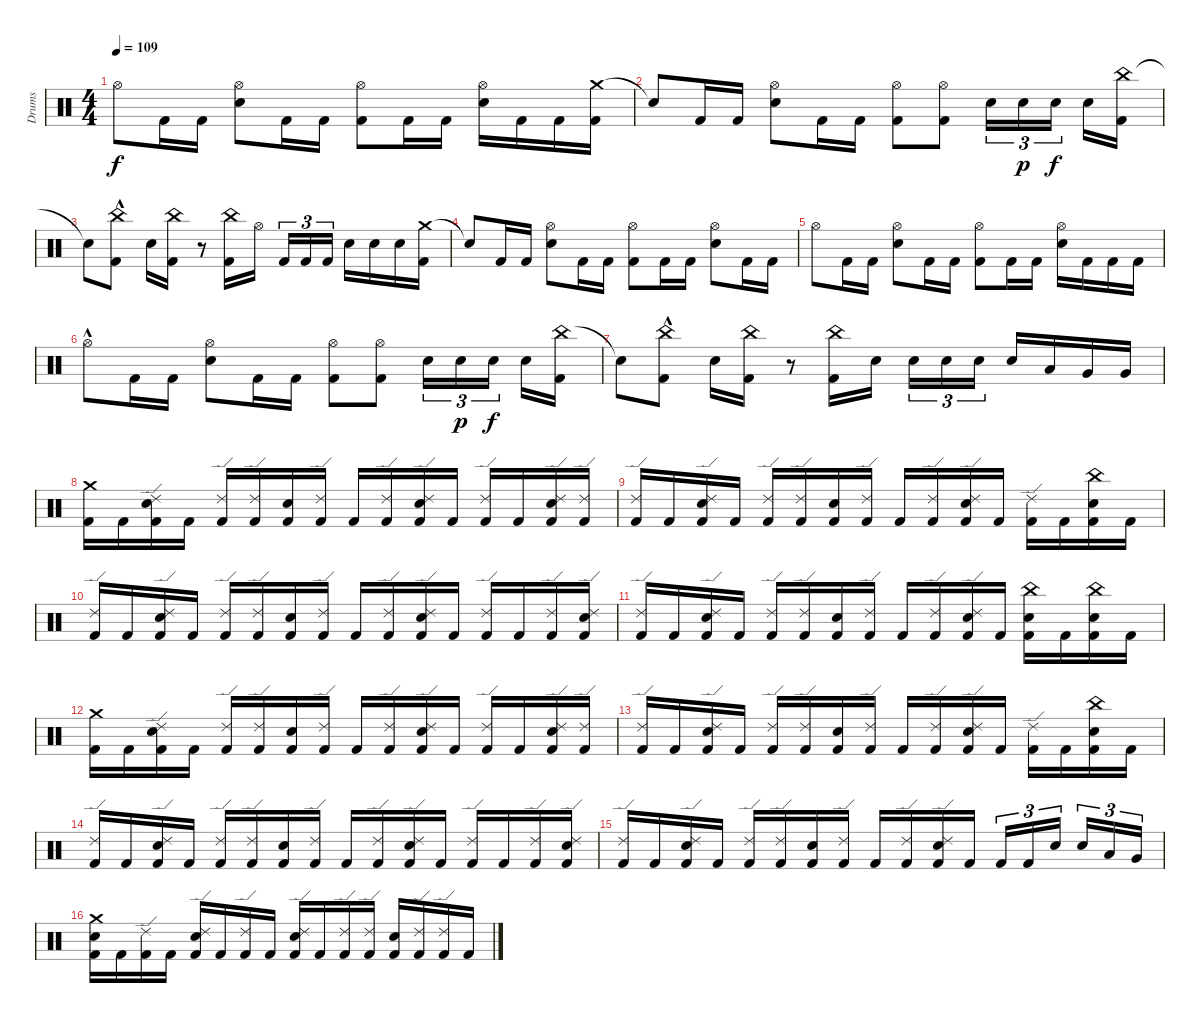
\track ("Drums" "Drums") {instrument percussion}
\staff {score}
\articulation defaults
\ts (4 4)
\tempo 109
\clef neutral
\ks c "Hi-Hat (open)".8{dy f} "Kick (hit) 2".16 "Kick (hit) 2".16
("Electric Snare (hit)" "Hi-Hat (open)").8 "Kick (hit) 2".16 "Kick (hit) 2".16 ("Kick (hit) 2" "Hi-Hat (open)").8 "Kick (hit) 2".16 "Kick (hit) 2".16 ("Electric Snare (hit)" "Hi-Hat (open)").16 "Kick (hit) 2".16 "Kick (hit) 2".16 ("Crash medium (hit)" "Kick (hit) 2").16 |
"Snare (hit)"{t}.8 "Kick (hit) 2".16 "Kick (hit) 2".16 ("Electric Snare (hit)" "Hi-Hat (open)").8 "Kick (hit) 2".16 "Kick (hit) 2".16 ("Kick (hit) 2" "Hi-Hat (open)").8 ("Kick (hit) 2" "Hi-Hat (open)").8 "Electric Snare (hit)".16{tu (3 2)} "Electric Snare (hit)".16{tu (3 2) dy p} "Electric Snare (hit)".16{tu (3 2) dy f} "Electric Snare (hit)".16 ("China (hit)" "Kick (hit) 2").16 |
"Snare (hit)"{t}.8 ("China (hit)"{hac} "Kick (hit) 2"{hac}).8 "Electric Snare (hit)".16 ("China (hit)" "Kick (hit) 2").16 r.8 ("China (hit)" "Kick (hit) 2").16 "Hi-Hat (open)".16 "Kick (hit) 2".16{tu (3 2)} "Kick (hit) 2".16{tu (3 2)} "Kick (hit) 2".16{tu (3 2)} "Electric Snare (hit)".16 "Electric Snare (hit)".16 "Electric Snare (hit)".16 ("Crash medium (hit)" "Kick (hit) 2").16 |
"Snare (hit)"{t}.8 "Kick (hit) 2".16 "Kick (hit) 2".16 ("Electric Snare (hit)" "Hi-Hat (open)").8 "Kick (hit) 2".16 "Kick (hit) 2".16 ("Kick (hit) 2" "Hi-Hat (open)").8 "Kick (hit) 2".16 "Kick (hit) 2".16 ("Electric Snare (hit)" "Hi-Hat (open)").8 "Kick (hit) 2".16 "Kick (hit) 2".16 |
"Hi-Hat (open)".8 "Kick (hit) 2".16 "Kick (hit) 2".16 ("Electric Snare (hit)" "Hi-Hat (open)").8 "Kick (hit) 2".16 "Kick (hit) 2".16 ("Kick (hit) 2" "Hi-Hat (open)").8 "Kick (hit) 2".16 "Kick (hit) 2".16 ("Electric Snare (hit)" "Hi-Hat (open)").16 "Kick (hit) 2".16 "Kick (hit) 2".16 "Kick (hit) 2".16 |
"Hi-Hat (open)"{hac}.8 "Kick (hit) 2".16 "Kick (hit) 2".16 ("Electric Snare (hit)" "Hi-Hat (open)").8 "Kick (hit) 2".16 "Kick (hit) 2".16 ("Kick (hit) 2" "Hi-Hat (open)").8 ("Kick (hit) 2" "Hi-Hat (open)").8 "Electric Snare (hit)".16{tu (3 2)} "Electric Snare (hit)".16{tu (3 2) dy p} "Electric Snare (hit)".16{tu (3 2) dy f} "Electric Snare (hit)".16 ("China (hit)" "Kick (hit) 2").16 |
"Snare (hit)"{t}.8 ("China (hit)"{hac} "Kick (hit) 2"{hac}).8 "Electric Snare (hit)".16 ("China (hit)" "Kick (hit) 2").16 r.8 ("China (hit)" "Kick (hit) 2").16 "Electric Snare (hit)".16 "Electric Snare (hit)".16{tu (3 2)} "Electric Snare (hit)".16{tu (3 2)} "Electric Snare (hit)".16{tu (3 2)} "Electric Snare (hit)".16 "Low Tom (hit)".16 "Very Low Tom (hit)".16 "Very Low Tom (hit)".16 |
("Kick (hit) 2" "Crash medium (hit)").16 "Kick (hit) 2".16 ("Electric Snare (hit)" "Kick (hit) 2" "Ride (edge) 2").16 "Kick (hit) 2".16 ("Kick (hit) 2" "Ride (edge) 2").16 ("Kick (hit) 2" "Ride (edge) 2").16 ("Electric Snare (hit)" "Kick (hit) 2").16 ("Kick (hit) 2" "Ride (edge) 2").16 "Kick (hit) 2".16 ("Kick (hit) 2" "Ride (edge) 2").16 ("Electric Snare (hit)" "Kick (hit) 2" "Ride (edge) 2").16 "Kick (hit) 2".16 ("Kick (hit) 2" "Ride (edge) 2").16 "Kick (hit) 2".16 ("Electric Snare (hit)" "Kick (hit) 2" "Ride (edge) 2").16 ("Kick (hit) 2" "Ride (edge) 2").16 |
("Ride (edge) 2" "Kick (hit) 2").16 "Kick (hit) 2".16 ("Electric Snare (hit)" "Kick (hit) 2" "Ride (edge) 2").16 "Kick (hit) 2".16 ("Kick (hit) 2" "Ride (edge) 2").16 ("Kick (hit) 2" "Ride (edge) 2").16 ("Electric Snare (hit)" "Kick (hit) 2").16 ("Kick (hit) 2" "Ride (edge) 2").16 "Kick (hit) 2".16 ("Kick (hit) 2" "Ride (edge) 2").16 ("Electric Snare (hit)" "Kick (hit) 2" "Ride (edge) 2").16 "Kick (hit) 2".16 ("Kick (hit) 2" "Ride (edge) 2").16 "Kick (hit) 2".16 ("China (hit)" "Electric Snare (hit)" "Kick (hit) 2").16 "Kick (hit) 2".16 |
("Ride (edge) 2" "Kick (hit) 2").16 "Kick (hit) 2".16 ("Electric Snare (hit)" "Kick (hit) 2" "Ride (edge) 2").16 "Kick (hit) 2".16 ("Kick (hit) 2" "Ride (edge) 2").16 ("Kick (hit) 2" "Ride (edge) 2").16 ("Electric Snare (hit)" "Kick (hit) 2").16 ("Kick (hit) 2" "Ride (edge) 2").16 "Kick (hit) 2".16 ("Kick (hit) 2" "Ride (edge) 2").16 ("Electric Snare (hit)" "Kick (hit) 2" "Ride (edge) 2").16 "Kick (hit) 2".16 ("Kick (hit) 2" "Ride (edge) 2").16 "Kick (hit) 2".16 ("Kick (hit) 2" "Ride (edge) 2").16 ("Electric Snare (hit)" "Kick (hit) 2" "Ride (edge) 2").16 |
("Ride (edge) 2" "Kick (hit) 2").16 "Kick (hit) 2".16 ("Electric Snare (hit)" "Kick (hit) 2" "Ride (edge) 2").16 "Kick (hit) 2".16 ("Kick (hit) 2" "Ride (edge) 2").16 ("Kick (hit) 2" "Ride (edge) 2").16 ("Electric Snare (hit)" "Kick (hit) 2").16 ("Kick (hit) 2" "Ride (edge) 2").16 "Kick (hit) 2".16 ("Kick (hit) 2" "Ride (edge) 2").16 ("Electric Snare (hit)" "Kick (hit) 2" "Ride (edge) 2").16 "Kick (hit) 2".16 ("Electric Snare (hit)" "China (hit)" "Kick (hit) 2").16 "Kick (hit) 2".16 ("China (hit)" "Electric Snare (hit)" "Kick (hit) 2").16 "Kick (hit) 2".16 |
("Kick (hit) 2" "Crash medium (hit)").16 "Kick (hit) 2".16 ("Electric Snare (hit)" "Kick (hit) 2" "Ride (edge) 2").16 "Kick (hit) 2".16 ("Kick (hit) 2" "Ride (edge) 2").16 ("Kick (hit) 2" "Ride (edge) 2").16 ("Electric Snare (hit)" "Kick (hit) 2").16 ("Kick (hit) 2" "Ride (edge) 2").16 "Kick (hit) 2".16 ("Kick (hit) 2" "Ride (edge) 2").16 ("Electric Snare (hit)" "Kick (hit) 2" "Ride (edge) 2").16 "Kick (hit) 2".16 ("Kick (hit) 2" "Ride (edge) 2").16 "Kick (hit) 2".16 ("Electric Snare (hit)" "Kick (hit) 2" "Ride (edge) 2").16 ("Kick (hit) 2" "Ride (edge) 2").16 |
("Ride (edge) 2" "Kick (hit) 2").16 "Kick (hit) 2".16 ("Electric Snare (hit)" "Kick (hit) 2" "Ride (edge) 2").16 "Kick (hit) 2".16 ("Kick (hit) 2" "Ride (edge) 2").16 ("Kick (hit) 2" "Ride (edge) 2").16 ("Electric Snare (hit)" "Kick (hit) 2").16 ("Kick (hit) 2" "Ride (edge) 2").16 "Kick (hit) 2".16 ("Kick (hit) 2" "Ride (edge) 2").16 ("Electric Snare (hit)" "Kick (hit) 2" "Ride (edge) 2").16 "Kick (hit) 2".16 ("Kick (hit) 2" "Ride (edge) 2").16 "Kick (hit) 2".16 ("China (hit)" "Electric Snare (hit)" "Kick (hit) 2").16 "Kick (hit) 2".16 |
("Ride (edge) 2" "Kick (hit) 2").16 "Kick (hit) 2".16 ("Electric Snare (hit)" "Kick (hit) 2" "Ride (edge) 2").16 "Kick (hit) 2".16 ("Kick (hit) 2" "Ride (edge) 2").16 ("Kick (hit) 2" "Ride (edge) 2").16 ("Electric Snare (hit)" "Kick (hit) 2").16 ("Kick (hit) 2" "Ride (edge) 2").16 "Kick (hit) 2".16 ("Kick (hit) 2" "Ride (edge) 2").16 ("Electric Snare (hit)" "Kick (hit) 2" "Ride (edge) 2").16 "Kick (hit) 2".16 ("Kick (hit) 2" "Ride (edge) 2").16 "Kick (hit) 2".16 ("Kick (hit) 2" "Ride (edge) 2").16 ("Electric Snare (hit)" "Kick (hit) 2" "Ride (edge) 2").16 |
("Ride (edge) 2" "Kick (hit) 2").16 "Kick (hit) 2".16 ("Electric Snare (hit)" "Kick (hit) 2" "Ride (edge) 2").16 "Kick (hit) 2".16 ("Kick (hit) 2" "Ride (edge) 2").16 ("Kick (hit) 2" "Ride (edge) 2").16 ("Electric Snare (hit)" "Kick (hit) 2").16 ("Kick (hit) 2" "Ride (edge) 2").16 "Kick (hit) 2".16 ("Kick (hit) 2" "Ride (edge) 2").16 ("Electric Snare (hit)" "Kick (hit) 2" "Ride (edge) 2").16 "Kick (hit) 2".16 "Kick (hit) 2".16{tu (3 2)} "Kick (hit) 2".16{tu (3 2)} "Electric Snare (hit)".16{tu (3 2)} "Electric Snare (hit)".16{tu (3 2)} "Low Tom (hit)".16{tu (3 2)} "Very Low Tom (hit)".16{tu (3 2)} |
("Crash medium (hit)" "Electric Snare (hit)" "Kick (hit) 2").16 "Kick (hit) 2".16 ("Ride (edge) 2" "Kick (hit) 2").16 "Kick (hit) 2".16 ("Ride (edge) 2" "Electric Snare (hit)" "Kick (hit) 2").16 "Kick (hit) 2".16 ("Ride (edge) 2" "Kick (hit) 2").16 "Kick (hit) 2".16 ("Ride (edge) 2" "Electric Snare (hit)" "Kick (hit) 2").16 "Kick (hit) 2".16 ("Ride (edge) 2" "Kick (hit) 2").16 ("Ride (edge) 2" "Kick (hit) 2").16 ("Electric Snare (hit)" "Kick (hit) 2").16 ("Ride (edge) 2" "Kick (hit) 2").16 ("Ride (edge) 2" "Kick (hit) 2").16 "Kick (hit) 2".16
